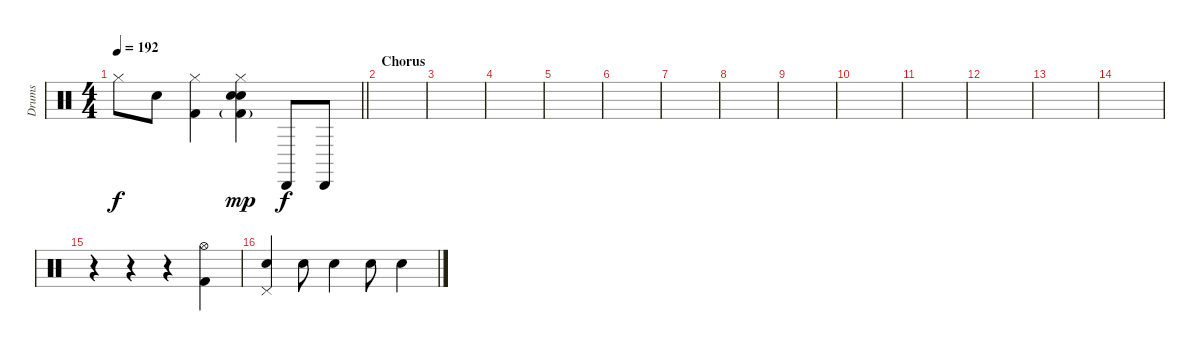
\track ("Drums" "Drums") {instrument percussion}
\staff {score}
\articulation defaults
\ts (4 4)
\tempo 192
\clef neutral
\barLineRight lightlight
\ks c "Hi-Hat (closed)".8{dy f} "Electric Snare (hit)".8
("Hi-Hat (closed)" "Kick (hit) 2").4 ("Hi-Hat (closed)" "Hand Clap (hit)" "Electric Snare (hit)" "Kick (hit) 2"{g}).4{dy mp} "Cabasa (hit)".8{dy f} "Cabasa (hit)".8 |
\section ("" "Chorus")
|
|
|
|
|
|
|
|
|
|
|
|
|
r.4 r.4 r.4 ("Hi-Hat (open)" "Kick (hit) 2").4 |
("Pedal Hi-Hat (hit)" "Electric Snare (hit)").4 "Electric Snare (hit)".8{volume 9 balance 5} "Electric Snare (hit)".4{volume 8 balance 11} "Electric Snare (hit)".8{volume 7 balance 3} "Electric Snare (hit)".4{volume 5 balance 14}
